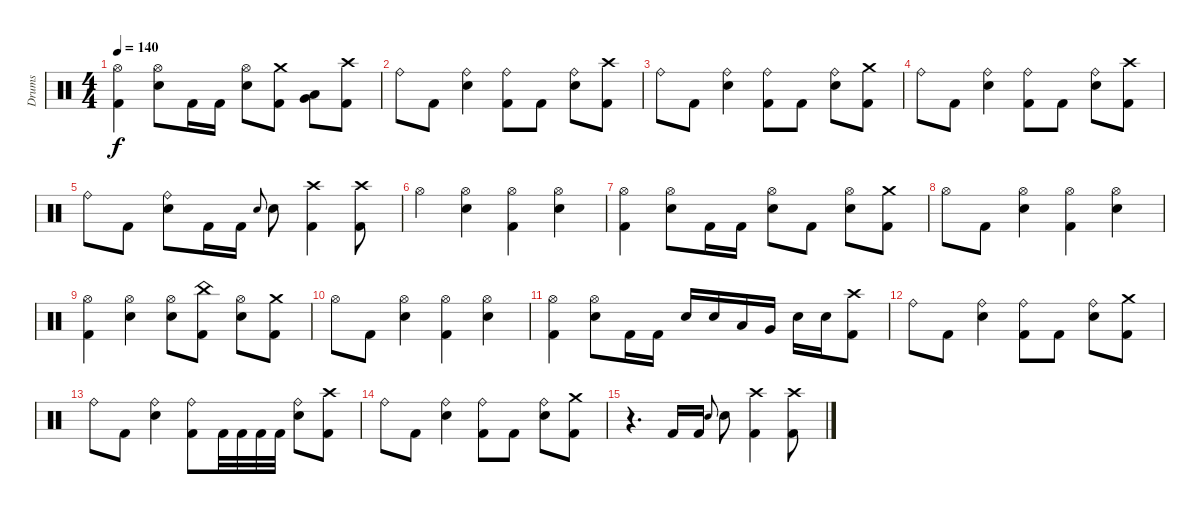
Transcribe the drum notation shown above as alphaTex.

\track ("Drums" "Drums") {instrument percussion}
\staff {score}
\articulation defaults
\ts (4 4)
\tempo 140
\clef neutral
\ks c
("Hi-Hat (open)" "Kick (hit) 2").4{dy f} ("Hi-Hat (open)" "Snare (hit) 2").8 "Kick (hit) 2".16 "Kick (hit) 2".16 ("Hi-Hat (open)" "Snare (hit) 2").8 ("Crash medium (hit)" "Kick (hit) 2").8 ("Very Low Tom (hit)" "Low Floor Tom (hit)").8 ("Crash high (hit)" "Kick (hit) 2").8 |
"Ride (bell)".8 "Kick (hit) 2".8 ("Ride (bell)" "Snare (hit) 2").4 ("Ride (bell)" "Kick (hit) 2").8 "Kick (hit) 2".8 ("Ride (bell)" "Snare (hit) 2").8 ("Crash high (hit)" "Kick (hit) 2").8 |
"Ride (bell)".8 "Kick (hit) 2".8 ("Ride (bell)" "Snare (hit) 2").4 ("Ride (bell)" "Kick (hit) 2").8 "Kick (hit) 2".8 ("Ride (bell)" "Snare (hit) 2").8 ("Crash medium (hit)" "Kick (hit) 2").8 |
"Ride (bell)".8 "Kick (hit) 2".8 ("Ride (bell)" "Snare (hit) 2").4 ("Ride (bell)" "Kick (hit) 2").8 "Kick (hit) 2".8 ("Ride (bell)" "Snare (hit) 2").8 ("Crash high (hit)" "Kick (hit) 2").8 |
"Ride (bell)".8 "Kick (hit) 2".8 ("Ride (bell)" "Snare (hit) 2").8 "Kick (hit) 2".16 "Kick (hit) 2".16 "Snare (hit) 2"{h}.8{gr onbeat} "Snare (hit) 2".8 ("Crash high (hit)" "Kick (hit) 2").4 ("Crash high (hit)" "Kick (hit) 2").8 |
"Hi-Hat (open)".4 ("Hi-Hat (open)" "Snare (hit) 2").4 ("Hi-Hat (open)" "Kick (hit) 2").4 ("Hi-Hat (open)" "Snare (hit) 2").4 |
("Hi-Hat (open)" "Kick (hit) 2").4 ("Hi-Hat (open)" "Snare (hit) 2").8 "Kick (hit) 2".16 "Kick (hit) 2".16 ("Hi-Hat (open)" "Snare (hit) 2").8 "Kick (hit) 2".8 ("Hi-Hat (open)" "Snare (hit) 2").8 ("Crash medium (hit)" "Kick (hit) 2").8 |
"Hi-Hat (open)".8 "Kick (hit) 2".8 ("Hi-Hat (open)" "Snare (hit) 2").4 ("Hi-Hat (open)" "Kick (hit) 2").4 ("Hi-Hat (open)" "Snare (hit) 2").4 |
("Hi-Hat (open)" "Kick (hit) 2").4 ("Hi-Hat (open)" "Snare (hit) 2").4 ("Hi-Hat (open)" "Snare (hit) 2").8 ("China (hit)" "Kick (hit) 2").8 ("Hi-Hat (open)" "Snare (hit) 2").8 ("Crash medium (hit)" "Kick (hit) 2").8 |
"Hi-Hat (open)".8 "Kick (hit) 2".8 ("Hi-Hat (open)" "Snare (hit) 2").4 ("Hi-Hat (open)" "Kick (hit) 2").4 ("Hi-Hat (open)" "Snare (hit) 2").4 |
("Hi-Hat (open)" "Kick (hit) 2").4 ("Hi-Hat (open)" "Snare (hit) 2").8 "Kick (hit) 2".16 "Kick (hit) 2".16 "Snare (hit) 2".16 "Snare (hit) 2".16 "Low Tom (hit)".16 "Very Low Tom (hit)".16 "Snare (hit) 2".16 "Snare (hit) 2".16 ("Crash high (hit)" "Kick (hit) 2").8 |
"Ride (bell)".8 "Kick (hit) 2".8 ("Ride (bell)" "Snare (hit) 2").4 ("Ride (bell)" "Kick (hit) 2").8 "Kick (hit) 2".8 ("Ride (bell)" "Snare (hit) 2").8 ("Crash medium (hit)" "Kick (hit) 2").8 |
"Ride (bell)".8 "Kick (hit) 2".8 ("Ride (bell)" "Snare (hit) 2").4 ("Ride (bell)" "Kick (hit) 2").8 "Kick (hit) 2".32 "Kick (hit) 2".32 "Kick (hit) 2".32 "Kick (hit) 2".32 ("Ride (bell)" "Snare (hit) 2").8 ("Crash high (hit)" "Kick (hit) 2").8 |
"Ride (bell)".8 "Kick (hit) 2".8 ("Ride (bell)" "Snare (hit) 2").4 ("Ride (bell)" "Kick (hit) 2").8 "Kick (hit) 2".8 ("Ride (bell)" "Snare (hit) 2").8 ("Crash medium (hit)" "Kick (hit) 2").8 |
r.4{d} "Kick (hit) 2".16 "Kick (hit) 2".16 "Snare (hit) 2"{h}.8{gr onbeat} "Snare (hit) 2".8 ("Crash high (hit)" "Kick (hit) 2").4 ("Crash high (hit)" "Kick (hit) 2").8
